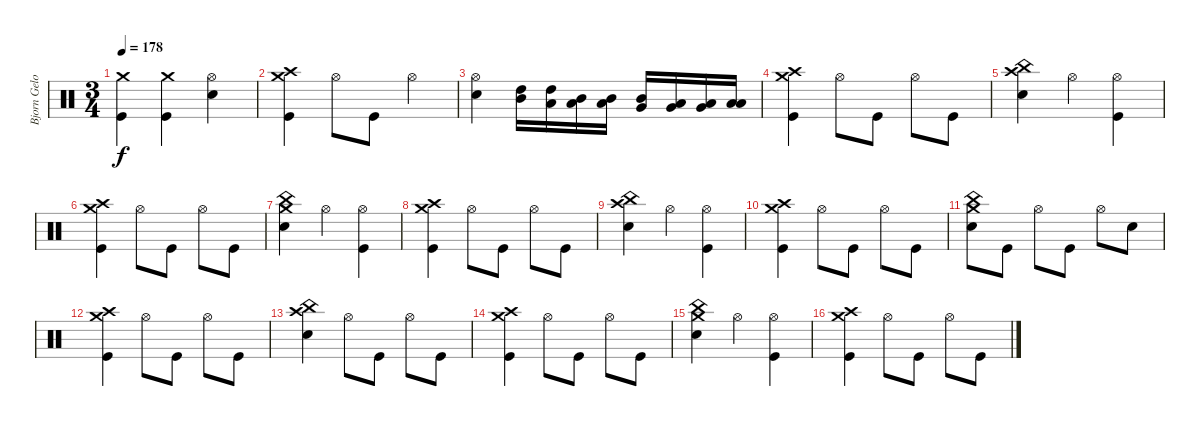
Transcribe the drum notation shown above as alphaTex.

\track ("Bjorn Gelotte-Drum" "Bjorn Gelo") {instrument percussion}
\staff {score}
\articulation defaults
\ts (3 4)
\tempo 178
\clef neutral
\ks c
("Kick (hit)" "Crash medium (hit)").4{dy f} ("Kick (hit)" "Crash medium (hit)").4 ("Electric Snare (hit)" "Hi-Hat (open)").4 |
("Kick (hit)" "Crash high (hit)" "Crash medium (hit)").4 "Hi-Hat (open)".8 "Kick (hit)".8 "Hi-Hat (open)".4 |
("Electric Snare (hit)" "Hi-Hat (open)").4 ("Mid Tom (hit)" "High Tom (hit)").16 ("Low Tom (hit)" "High Tom (hit)").16 ("Low Tom (hit)" "Mid Tom (hit)").16 ("Low Tom (hit)" "Mid Tom (hit)").16 ("Very Low Tom (hit)" "Mid Tom (hit)").16 ("Very Low Tom (hit)" "Low Tom (hit)").16 ("Very Low Tom (hit)" "Low Tom (hit)").16 ("Low Floor Tom (hit)" "Low Tom (hit)").16 |
("Kick (hit)" "Crash high (hit)" "Crash medium (hit)").4 "Hi-Hat (open)".8 "Kick (hit)".8 "Hi-Hat (open)".8 "Kick (hit)".8 |
("Electric Snare (hit)" "China (hit)" "Crash high (hit)").4 "Hi-Hat (open)".4 ("Kick (hit)" "Hi-Hat (open)").4 |
("Kick (hit)" "Crash high (hit)" "Crash medium (hit)").4 "Hi-Hat (open)".8 "Kick (hit)".8 "Hi-Hat (open)".8 "Kick (hit)".8 |
("Electric Snare (hit)" "China (hit)" "Crash medium (hit)").4 "Hi-Hat (open)".4 ("Kick (hit)" "Hi-Hat (open)").4 |
("Kick (hit)" "Crash high (hit)" "Crash medium (hit)").4 "Hi-Hat (open)".8 "Kick (hit)".8 "Hi-Hat (open)".8 "Kick (hit)".8 |
("Electric Snare (hit)" "China (hit)" "Crash high (hit)").4 "Hi-Hat (open)".4 ("Kick (hit)" "Hi-Hat (open)").4 |
("Kick (hit)" "Crash high (hit)" "Crash medium (hit)").4 "Hi-Hat (open)".8 "Kick (hit)".8 "Hi-Hat (open)".8 "Kick (hit)".8 |
("Electric Snare (hit)" "China (hit)" "Crash medium (hit)").8 "Kick (hit)".8 "Hi-Hat (open)".8 "Kick (hit)".8 "Hi-Hat (open)".8 "Electric Snare (hit)".8 |
("Kick (hit)" "Crash high (hit)" "Crash medium (hit)").4 "Hi-Hat (open)".8 "Kick (hit)".8 "Hi-Hat (open)".8 "Kick (hit)".8 |
("Electric Snare (hit)" "China (hit)" "Crash high (hit)").4 "Hi-Hat (open)".8 "Kick (hit)".8 "Hi-Hat (open)".8 "Kick (hit)".8 |
("Kick (hit)" "Crash high (hit)" "Crash medium (hit)").4 "Hi-Hat (open)".8 "Kick (hit)".8 "Hi-Hat (open)".8 "Kick (hit)".8 |
("Electric Snare (hit)" "China (hit)" "Crash medium (hit)").4 "Hi-Hat (open)".4 ("Kick (hit)" "Hi-Hat (open)").4 |
("Kick (hit)" "Crash high (hit)" "Crash medium (hit)").4 "Hi-Hat (open)".8 "Kick (hit)".8 "Hi-Hat (open)".8 "Kick (hit)".8
